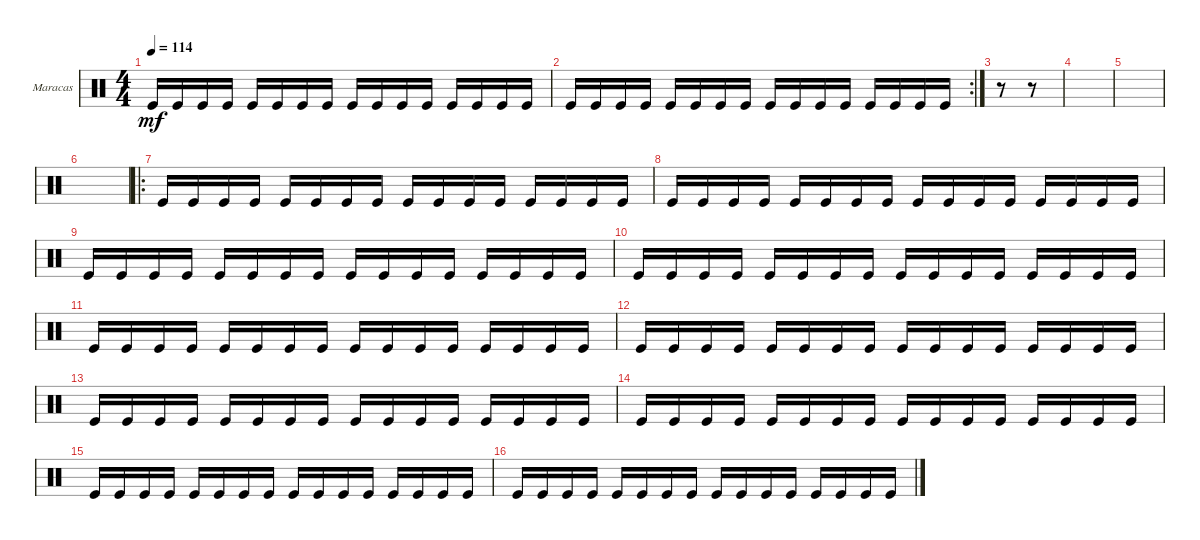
\defaultSystemsLayout 4
\bracketExtendMode groupsimilarinstruments
\firstSystemTrackNameOrientation horizontal
\otherSystemsTrackNameOrientation horizontal
\track ("Maracas" "Maracas") {instrument percussion}
\staff {score}
\articulation defaults
\ts (4 4)
\tempo 114
\clef neutral
\ks c "Kick (hit)".16{dy mf} "Kick (hit)".16 "Kick (hit)".16 "Kick (hit)".16 "Kick (hit)".16 "Kick (hit)".16 "Kick (hit)".16 "Kick (hit)".16 "Kick (hit)".16 "Kick (hit)".16 "Kick (hit)".16 "Kick (hit)".16 "Kick (hit)".16 "Kick (hit)".16 "Kick (hit)".16 "Kick (hit)".16
|
\rc 2 "Kick (hit)".16 "Kick (hit)".16 "Kick (hit)".16 "Kick (hit)".16 "Kick (hit)".16 "Kick (hit)".16 "Kick (hit)".16 "Kick (hit)".16 "Kick (hit)".16 "Kick (hit)".16 "Kick (hit)".16 "Kick (hit)".16 "Kick (hit)".16 "Kick (hit)".16 "Kick (hit)".16 "Kick (hit)".16
|
r.8 r.8 |
|
|
|
\ro "Kick (hit)".16 "Kick (hit)".16 "Kick (hit)".16 "Kick (hit)".16 "Kick (hit)".16 "Kick (hit)".16 "Kick (hit)".16 "Kick (hit)".16 "Kick (hit)".16 "Kick (hit)".16 "Kick (hit)".16 "Kick (hit)".16 "Kick (hit)".16 "Kick (hit)".16 "Kick (hit)".16 "Kick (hit)".16
|
"Kick (hit)".16 "Kick (hit)".16 "Kick (hit)".16 "Kick (hit)".16 "Kick (hit)".16 "Kick (hit)".16 "Kick (hit)".16 "Kick (hit)".16 "Kick (hit)".16 "Kick (hit)".16 "Kick (hit)".16 "Kick (hit)".16 "Kick (hit)".16 "Kick (hit)".16 "Kick (hit)".16 "Kick (hit)".16 |
"Kick (hit)".16 "Kick (hit)".16 "Kick (hit)".16 "Kick (hit)".16 "Kick (hit)".16 "Kick (hit)".16 "Kick (hit)".16 "Kick (hit)".16 "Kick (hit)".16 "Kick (hit)".16 "Kick (hit)".16 "Kick (hit)".16 "Kick (hit)".16 "Kick (hit)".16 "Kick (hit)".16 "Kick (hit)".16 |
"Kick (hit)".16 "Kick (hit)".16 "Kick (hit)".16 "Kick (hit)".16 "Kick (hit)".16 "Kick (hit)".16 "Kick (hit)".16 "Kick (hit)".16 "Kick (hit)".16 "Kick (hit)".16 "Kick (hit)".16 "Kick (hit)".16 "Kick (hit)".16 "Kick (hit)".16 "Kick (hit)".16 "Kick (hit)".16 |
"Kick (hit)".16 "Kick (hit)".16 "Kick (hit)".16 "Kick (hit)".16 "Kick (hit)".16 "Kick (hit)".16 "Kick (hit)".16 "Kick (hit)".16 "Kick (hit)".16 "Kick (hit)".16 "Kick (hit)".16 "Kick (hit)".16 "Kick (hit)".16 "Kick (hit)".16 "Kick (hit)".16 "Kick (hit)".16 |
"Kick (hit)".16 "Kick (hit)".16 "Kick (hit)".16 "Kick (hit)".16 "Kick (hit)".16 "Kick (hit)".16 "Kick (hit)".16 "Kick (hit)".16 "Kick (hit)".16 "Kick (hit)".16 "Kick (hit)".16 "Kick (hit)".16 "Kick (hit)".16 "Kick (hit)".16 "Kick (hit)".16 "Kick (hit)".16 |
"Kick (hit)".16 "Kick (hit)".16 "Kick (hit)".16 "Kick (hit)".16 "Kick (hit)".16 "Kick (hit)".16 "Kick (hit)".16 "Kick (hit)".16 "Kick (hit)".16 "Kick (hit)".16 "Kick (hit)".16 "Kick (hit)".16 "Kick (hit)".16 "Kick (hit)".16 "Kick (hit)".16 "Kick (hit)".16 |
"Kick (hit)".16 "Kick (hit)".16 "Kick (hit)".16 "Kick (hit)".16 "Kick (hit)".16 "Kick (hit)".16 "Kick (hit)".16 "Kick (hit)".16 "Kick (hit)".16 "Kick (hit)".16 "Kick (hit)".16 "Kick (hit)".16 "Kick (hit)".16 "Kick (hit)".16 "Kick (hit)".16 "Kick (hit)".16 |
"Kick (hit)".16 "Kick (hit)".16 "Kick (hit)".16 "Kick (hit)".16 "Kick (hit)".16 "Kick (hit)".16 "Kick (hit)".16 "Kick (hit)".16 "Kick (hit)".16 "Kick (hit)".16 "Kick (hit)".16 "Kick (hit)".16 "Kick (hit)".16 "Kick (hit)".16 "Kick (hit)".16 "Kick (hit)".16 |
"Kick (hit)".16 "Kick (hit)".16 "Kick (hit)".16 "Kick (hit)".16 "Kick (hit)".16 "Kick (hit)".16 "Kick (hit)".16 "Kick (hit)".16 "Kick (hit)".16 "Kick (hit)".16 "Kick (hit)".16 "Kick (hit)".16 "Kick (hit)".16 "Kick (hit)".16 "Kick (hit)".16 "Kick (hit)".16
